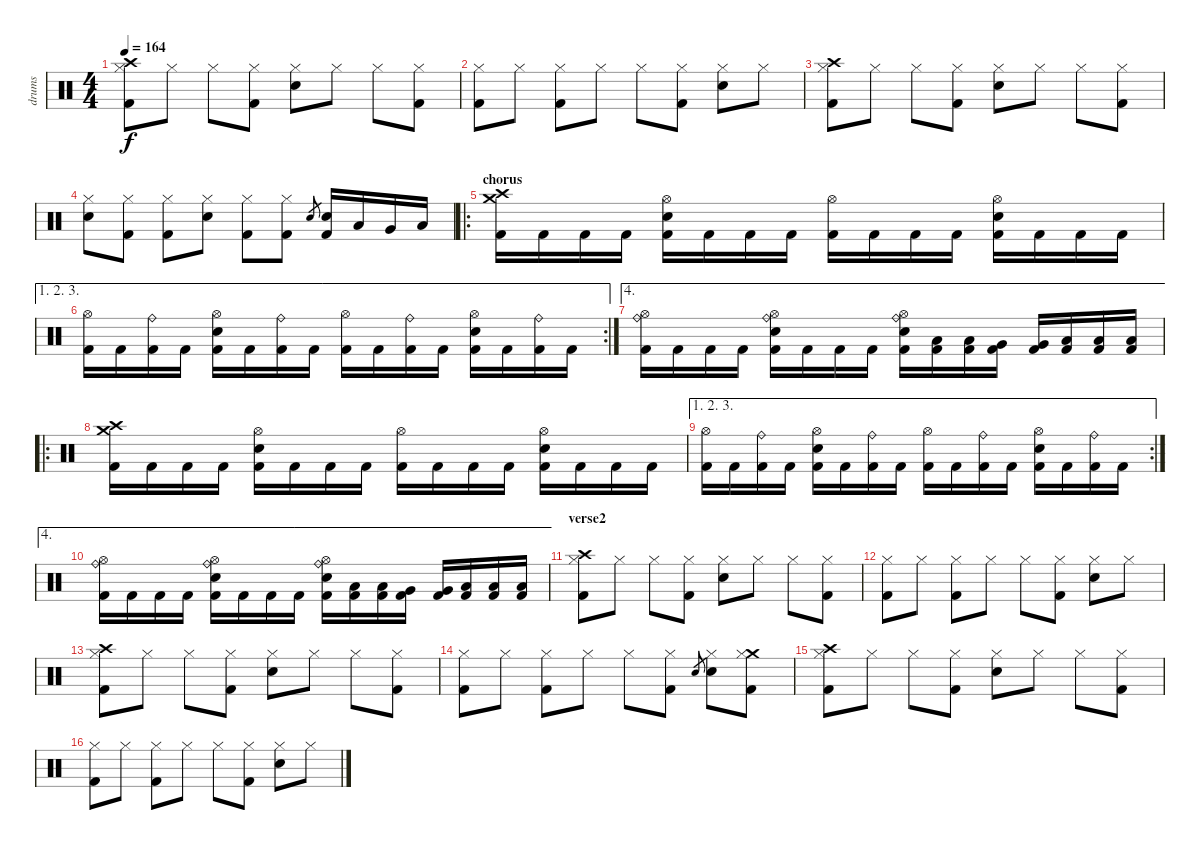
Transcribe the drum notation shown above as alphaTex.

\track ("drums" "drums") {instrument percussion}
\staff {score}
\articulation defaults
\ts (4 4)
\tempo 164
\clef neutral
\ks c
("Crash high (hit)" "Hi-Hat (closed)" "Kick (hit) 2").8{dy f} "Hi-Hat (closed)".8 "Hi-Hat (closed)".8 ("Hi-Hat (closed)" "Kick (hit) 2").8 ("Hi-Hat (closed)" "Electric Snare (hit)").8 "Hi-Hat (closed)".8 "Hi-Hat (closed)".8 ("Hi-Hat (closed)" "Kick (hit) 2").8 |
("Hi-Hat (closed)" "Kick (hit) 2").8 "Hi-Hat (closed)".8 ("Hi-Hat (closed)" "Kick (hit) 2").8 "Hi-Hat (closed)".8 "Hi-Hat (closed)".8 ("Hi-Hat (closed)" "Kick (hit) 2").8 ("Hi-Hat (closed)" "Electric Snare (hit)").8 "Hi-Hat (closed)".8 |
("Crash high (hit)" "Hi-Hat (closed)" "Kick (hit) 2").8 "Hi-Hat (closed)".8 "Hi-Hat (closed)".8 ("Hi-Hat (closed)" "Kick (hit) 2").8 ("Hi-Hat (closed)" "Electric Snare (hit)").8 "Hi-Hat (closed)".8 "Hi-Hat (closed)".8 ("Hi-Hat (closed)" "Kick (hit) 2").8 |
("Hi-Hat (closed)" "Electric Snare (hit)").8 ("Hi-Hat (closed)" "Kick (hit) 2").8 ("Hi-Hat (closed)" "Kick (hit) 2").8 ("Hi-Hat (closed)" "Electric Snare (hit)").8 ("Hi-Hat (closed)" "Kick (hit) 2").8 ("Hi-Hat (closed)" "Kick (hit) 2").8 "Electric Snare (hit)".8{gr} ("Electric Snare (hit)" "Kick (hit) 2").16 "Low Tom (hit)".16 "Very Low Tom (hit)".16 "Low Floor Tom (hit)".16 |
\ro
\section ("" "chorus")
("Crash high (hit)" "Crash medium (hit)" "Kick (hit) 2").16 "Kick (hit) 2".16 "Kick (hit) 2".16 "Kick (hit) 2".16 ("Hi-Hat (open)" "Electric Snare (hit)" "Kick (hit) 2").16 "Kick (hit) 2".16 "Kick (hit) 2".16 "Kick (hit) 2".16 ("Hi-Hat (open)" "Kick (hit) 2").16 "Kick (hit) 2".16 "Kick (hit) 2".16 "Kick (hit) 2".16 ("Hi-Hat (open)" "Electric Snare (hit)" "Kick (hit) 2").16 "Kick (hit) 2".16 "Kick (hit) 2".16 "Kick (hit) 2".16 |
\ae (1 2 3)
\rc 2
("Hi-Hat (open)" "Kick (hit) 2").16 "Kick (hit) 2".16 ("Ride (bell)" "Kick (hit) 2").16 "Kick (hit) 2".16 ("Hi-Hat (open)" "Electric Snare (hit)" "Kick (hit) 2").16 "Kick (hit) 2".16 ("Ride (bell)" "Kick (hit) 2").16 "Kick (hit) 2".16 ("Hi-Hat (open)" "Kick (hit) 2").16 "Kick (hit) 2".16 ("Ride (bell)" "Kick (hit) 2").16 "Kick (hit) 2".16 ("Hi-Hat (open)" "Electric Snare (hit)" "Kick (hit) 2").16 "Kick (hit) 2".16 ("Ride (bell)" "Kick (hit) 2").16 "Kick (hit) 2".16 |
\ae 4
("Ride (bell)" "Hi-Hat (open)" "Kick (hit) 2").16 "Kick (hit) 2".16 "Kick (hit) 2".16 "Kick (hit) 2".16 ("Ride (bell)" "Hi-Hat (open)" "Electric Snare (hit)" "Kick (hit) 2").16 "Kick (hit) 2".16 "Kick (hit) 2".16 "Kick (hit) 2".16 ("Ride (bell)" "Hi-Hat (open)" "Electric Snare (hit)" "Kick (hit) 2").16 ("Low Tom (hit)" "Kick (hit) 2").16 ("Low Tom (hit)" "Kick (hit) 2").16 ("Very Low Tom (hit)" "Kick (hit) 2").16 ("Very Low Tom (hit)" "Kick (hit) 2").16 ("Low Floor Tom (hit)" "Kick (hit) 2").16 ("Low Floor Tom (hit)" "Kick (hit) 2").16 ("Low Floor Tom (hit)" "Kick (hit) 2").16 |
\ro
("Crash high (hit)" "Crash medium (hit)" "Kick (hit) 2").16 "Kick (hit) 2".16 "Kick (hit) 2".16 "Kick (hit) 2".16 ("Hi-Hat (open)" "Electric Snare (hit)" "Kick (hit) 2").16 "Kick (hit) 2".16 "Kick (hit) 2".16 "Kick (hit) 2".16 ("Hi-Hat (open)" "Kick (hit) 2").16 "Kick (hit) 2".16 "Kick (hit) 2".16 "Kick (hit) 2".16 ("Hi-Hat (open)" "Electric Snare (hit)" "Kick (hit) 2").16 "Kick (hit) 2".16 "Kick (hit) 2".16 "Kick (hit) 2".16 |
\ae (1 2 3)
\rc 2
("Hi-Hat (open)" "Kick (hit) 2").16 "Kick (hit) 2".16 ("Ride (bell)" "Kick (hit) 2").16 "Kick (hit) 2".16 ("Hi-Hat (open)" "Electric Snare (hit)" "Kick (hit) 2").16 "Kick (hit) 2".16 ("Ride (bell)" "Kick (hit) 2").16 "Kick (hit) 2".16 ("Hi-Hat (open)" "Kick (hit) 2").16 "Kick (hit) 2".16 ("Ride (bell)" "Kick (hit) 2").16 "Kick (hit) 2".16 ("Hi-Hat (open)" "Electric Snare (hit)" "Kick (hit) 2").16 "Kick (hit) 2".16 ("Ride (bell)" "Kick (hit) 2").16 "Kick (hit) 2".16 |
\ae 4
("Ride (bell)" "Hi-Hat (open)" "Kick (hit) 2").16 "Kick (hit) 2".16 "Kick (hit) 2".16 "Kick (hit) 2".16 ("Ride (bell)" "Hi-Hat (open)" "Electric Snare (hit)" "Kick (hit) 2").16 "Kick (hit) 2".16 "Kick (hit) 2".16 "Kick (hit) 2".16 ("Ride (bell)" "Hi-Hat (open)" "Electric Snare (hit)" "Kick (hit) 2").16 ("Low Tom (hit)" "Kick (hit) 2").16 ("Low Tom (hit)" "Kick (hit) 2").16 ("Very Low Tom (hit)" "Kick (hit) 2").16 ("Very Low Tom (hit)" "Kick (hit) 2").16 ("Low Floor Tom (hit)" "Kick (hit) 2").16 ("Low Floor Tom (hit)" "Kick (hit) 2").16 ("Low Floor Tom (hit)" "Kick (hit) 2").16 |
\section ("" "verse2")
("Crash high (hit)" "Hi-Hat (closed)" "Kick (hit) 2").8 "Hi-Hat (closed)".8 "Hi-Hat (closed)".8 ("Hi-Hat (closed)" "Kick (hit) 2").8 ("Hi-Hat (closed)" "Electric Snare (hit)").8 "Hi-Hat (closed)".8 "Hi-Hat (closed)".8 ("Hi-Hat (closed)" "Kick (hit) 2").8 |
("Hi-Hat (closed)" "Kick (hit) 2").8 "Hi-Hat (closed)".8 ("Hi-Hat (closed)" "Kick (hit) 2").8 "Hi-Hat (closed)".8 "Hi-Hat (closed)".8 ("Hi-Hat (closed)" "Kick (hit) 2").8 ("Hi-Hat (closed)" "Electric Snare (hit)").8 "Hi-Hat (closed)".8 |
("Crash high (hit)" "Hi-Hat (closed)" "Kick (hit) 2").8 "Hi-Hat (closed)".8 "Hi-Hat (closed)".8 ("Hi-Hat (closed)" "Kick (hit) 2").8 ("Hi-Hat (closed)" "Electric Snare (hit)").8 "Hi-Hat (closed)".8 "Hi-Hat (closed)".8 ("Hi-Hat (closed)" "Kick (hit) 2").8 |
("Hi-Hat (closed)" "Kick (hit) 2").8 "Hi-Hat (closed)".8 ("Hi-Hat (closed)" "Kick (hit) 2").8 "Hi-Hat (closed)".8 "Hi-Hat (closed)".8 ("Hi-Hat (closed)" "Kick (hit) 2").8 "Electric Snare (hit)".8{gr} ("Hi-Hat (closed)" "Electric Snare (hit)").8 ("Crash medium (hit)" "Hi-Hat (closed)" "Kick (hit) 2").8 |
("Crash high (hit)" "Hi-Hat (closed)" "Kick (hit) 2").8 "Hi-Hat (closed)".8 "Hi-Hat (closed)".8 ("Hi-Hat (closed)" "Kick (hit) 2").8 ("Hi-Hat (closed)" "Electric Snare (hit)").8 "Hi-Hat (closed)".8 "Hi-Hat (closed)".8 ("Hi-Hat (closed)" "Kick (hit) 2").8 |
("Hi-Hat (closed)" "Kick (hit) 2").8 "Hi-Hat (closed)".8 ("Hi-Hat (closed)" "Kick (hit) 2").8 "Hi-Hat (closed)".8 "Hi-Hat (closed)".8 ("Hi-Hat (closed)" "Kick (hit) 2").8 ("Hi-Hat (closed)" "Electric Snare (hit)").8 "Hi-Hat (closed)".8
